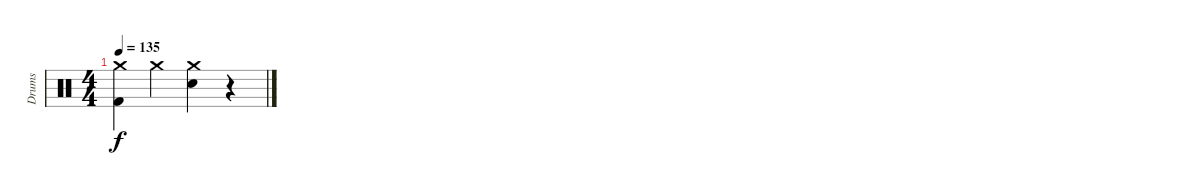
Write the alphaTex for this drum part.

\track ("Drums" "Drums") {instrument percussion}
\staff {score}
\articulation defaults
\ts (4 4)
\tempo 135
\clef neutral
\ks c
("Crash medium (hit)" "Kick (hit) 2").4{dy f} "Crash medium (hit)".4 ("Crash medium (hit)" "Electric Snare (hit)").4 r.4
